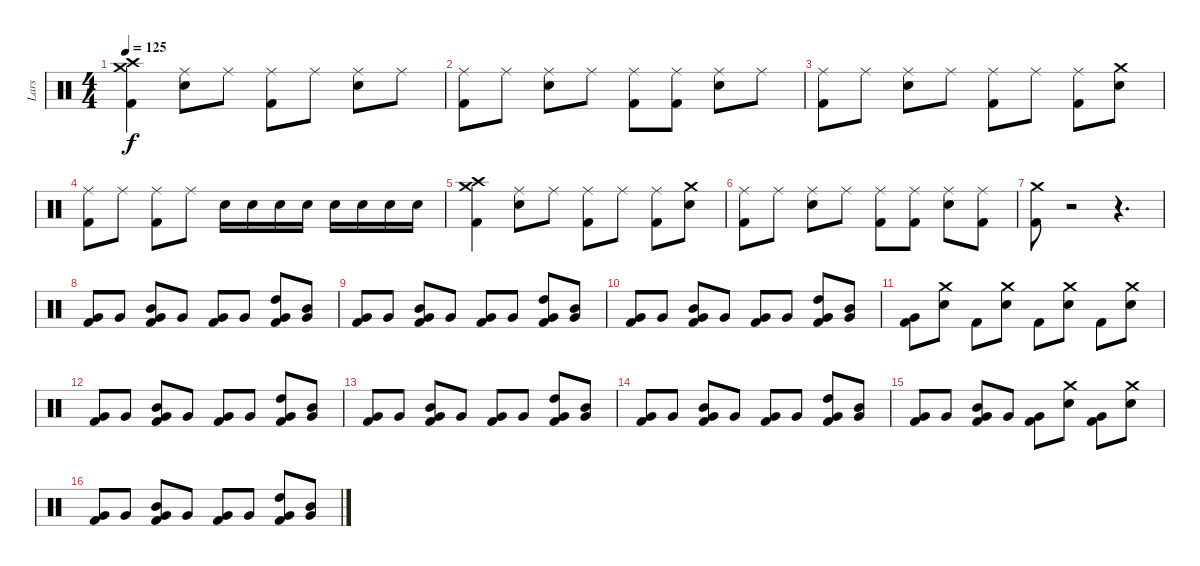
\track ("Lars" "Lars") {instrument percussion}
\staff {score}
\articulation defaults
\ts (4 4)
\tempo 125
\clef neutral
\ks c
("Kick (hit) 2" "Crash medium (hit)" "Crash high (hit)").4{dy f} ("Snare (hit) 2" "Ride (middle)").8 "Ride (middle)".8 ("Kick (hit) 2" "Ride (middle)").8 "Ride (middle)".8 ("Snare (hit) 2" "Ride (middle)").8 "Ride (middle)".8 |
("Ride (middle)" "Kick (hit) 2").8 "Ride (middle)".8 ("Snare (hit) 2" "Ride (middle)").8 "Ride (middle)".8 ("Kick (hit) 2" "Ride (middle)").8 ("Kick (hit) 2" "Ride (middle)").8 ("Snare (hit) 2" "Ride (middle)").8 "Ride (middle)".8 |
("Ride (middle)" "Kick (hit) 2").8 "Ride (middle)".8 ("Snare (hit) 2" "Ride (middle)").8 "Ride (middle)".8 ("Kick (hit) 2" "Ride (middle)").8 "Ride (middle)".8 ("Kick (hit) 2" "Ride (middle)").8 ("Snare (hit) 2" "Crash medium (hit)").8 |
("Ride (middle)" "Kick (hit) 2").8 "Ride (middle)".8 ("Kick (hit) 2" "Ride (middle)").8 "Ride (middle)".8 "Snare (hit) 2".16 "Snare (hit) 2".16 "Snare (hit) 2".16 "Snare (hit) 2".16 "Snare (hit) 2".16 "Snare (hit) 2".16 "Snare (hit) 2".16 "Snare (hit) 2".16 |
("Kick (hit) 2" "Crash medium (hit)" "Crash high (hit)").4 ("Ride (middle)" "Snare (hit) 2").8 "Ride (middle)".8 ("Kick (hit) 2" "Ride (middle)").8 "Ride (middle)".8 ("Kick (hit) 2" "Ride (middle)").8 ("Crash medium (hit)" "Snare (hit) 2").8 |
("Kick (hit) 2" "Ride (middle)").8 "Ride (middle)".8 ("Snare (hit) 2" "Ride (middle)").8 "Ride (middle)".8 ("Kick (hit) 2" "Ride (middle)").8 ("Kick (hit) 2" "Ride (middle)").8 ("Snare (hit) 2" "Ride (middle)").8 ("Kick (hit) 2" "Ride (middle)").8 |
("Kick (hit) 2" "Crash medium (hit)").8 r.2{volume 0} r.4{d} |
("Very Low Tom (hit)" "Kick (hit) 2").8{volume 16} "Very Low Tom (hit)".8 ("Mid Tom (hit)" "Very Low Tom (hit)" "Kick (hit) 2").8 "Very Low Tom (hit)".8 ("Very Low Tom (hit)" "Kick (hit) 2").8 "Very Low Tom (hit)".8 ("High Tom (hit)" "Very Low Tom (hit)" "Kick (hit) 2").8 ("Mid Tom (hit)" "Very Low Tom (hit)").8 |
("Very Low Tom (hit)" "Kick (hit) 2").8 "Very Low Tom (hit)".8 ("Mid Tom (hit)" "Very Low Tom (hit)" "Kick (hit) 2").8 "Very Low Tom (hit)".8 ("Very Low Tom (hit)" "Kick (hit) 2").8 "Very Low Tom (hit)".8 ("High Tom (hit)" "Very Low Tom (hit)" "Kick (hit) 2").8 ("Mid Tom (hit)" "Very Low Tom (hit)").8 |
("Very Low Tom (hit)" "Kick (hit) 2").8 "Very Low Tom (hit)".8 ("Mid Tom (hit)" "Very Low Tom (hit)" "Kick (hit) 2").8 "Very Low Tom (hit)".8 ("Very Low Tom (hit)" "Kick (hit) 2").8 "Very Low Tom (hit)".8 ("High Tom (hit)" "Very Low Tom (hit)" "Kick (hit) 2").8 ("Mid Tom (hit)" "Very Low Tom (hit)").8 |
("Kick (hit) 2" "Very Low Tom (hit)").8 ("Crash medium (hit)" "Snare (hit) 2").8 "Kick (hit) 2".8 ("Snare (hit) 2" "Crash medium (hit)").8 "Kick (hit) 2".8 ("Crash medium (hit)" "Snare (hit) 2").8 "Kick (hit) 2".8 ("Crash medium (hit)" "Snare (hit) 2").8 |
("Very Low Tom (hit)" "Kick (hit) 2").8 "Very Low Tom (hit)".8 ("Mid Tom (hit)" "Very Low Tom (hit)" "Kick (hit) 2").8 "Very Low Tom (hit)".8 ("Very Low Tom (hit)" "Kick (hit) 2").8 "Very Low Tom (hit)".8 ("High Tom (hit)" "Very Low Tom (hit)" "Kick (hit) 2").8 ("Mid Tom (hit)" "Very Low Tom (hit)").8 |
("Very Low Tom (hit)" "Kick (hit) 2").8 "Very Low Tom (hit)".8 ("Mid Tom (hit)" "Very Low Tom (hit)" "Kick (hit) 2").8 "Very Low Tom (hit)".8 ("Very Low Tom (hit)" "Kick (hit) 2").8 "Very Low Tom (hit)".8 ("High Tom (hit)" "Very Low Tom (hit)" "Kick (hit) 2").8 ("Mid Tom (hit)" "Very Low Tom (hit)").8 |
("Very Low Tom (hit)" "Kick (hit) 2").8 "Very Low Tom (hit)".8 ("Mid Tom (hit)" "Very Low Tom (hit)" "Kick (hit) 2").8 "Very Low Tom (hit)".8 ("Very Low Tom (hit)" "Kick (hit) 2").8 "Very Low Tom (hit)".8 ("High Tom (hit)" "Very Low Tom (hit)" "Kick (hit) 2").8 ("Mid Tom (hit)" "Very Low Tom (hit)").8 |
("Very Low Tom (hit)" "Kick (hit) 2").8 "Very Low Tom (hit)".8 ("Mid Tom (hit)" "Very Low Tom (hit)" "Kick (hit) 2").8 "Very Low Tom (hit)".8 ("Very Low Tom (hit)" "Kick (hit) 2").8 ("Crash medium (hit)" "Snare (hit) 2").8 ("Very Low Tom (hit)" "Kick (hit) 2").8 ("Snare (hit) 2" "Crash medium (hit)").8 |
("Very Low Tom (hit)" "Kick (hit) 2").8 "Very Low Tom (hit)".8 ("Mid Tom (hit)" "Very Low Tom (hit)" "Kick (hit) 2").8 "Very Low Tom (hit)".8 ("Very Low Tom (hit)" "Kick (hit) 2").8 "Very Low Tom (hit)".8 ("High Tom (hit)" "Very Low Tom (hit)" "Kick (hit) 2").8 ("Mid Tom (hit)" "Very Low Tom (hit)").8
